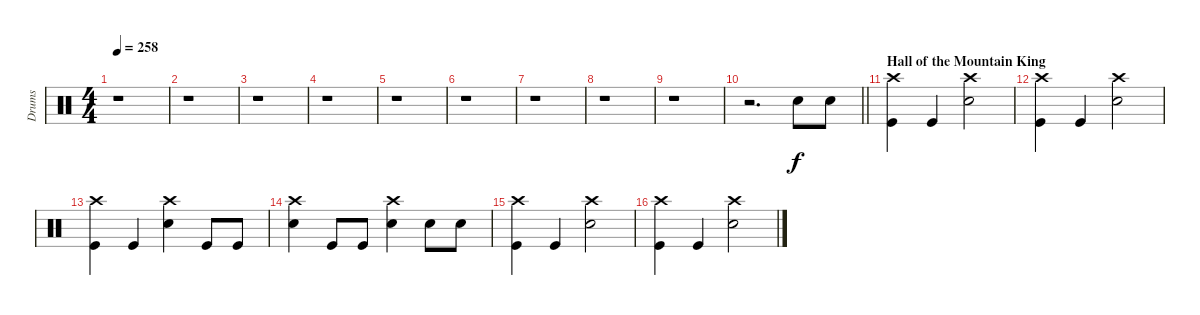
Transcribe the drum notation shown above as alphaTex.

\track ("Drums" "Drums") {instrument percussion}
\staff {score}
\articulation defaults
\ts (4 4)
\tempo 258
\clef neutral
\ks c
r.1{dy f} |
r.1 |
r.1 |
r.1 |
r.1 |
r.1 |
r.1 |
r.1 |
r.1 |
\barLineRight lightlight
r.2{d} "Electric Snare (hit)".8 "Electric Snare (hit)".8 |
\section ("" "Hall of the Mountain King")
("Crash high (hit)" "Kick (hit)").4 "Kick (hit)".4 ("Crash high (hit)" "Electric Snare (hit)").2 |
("Crash high (hit)" "Kick (hit)").4 "Kick (hit)".4 ("Crash high (hit)" "Electric Snare (hit)").2 |
("Crash high (hit)" "Kick (hit)").4 "Kick (hit)".4 ("Crash high (hit)" "Electric Snare (hit)").4 "Kick (hit)".8 "Kick (hit)".8 |
("Crash high (hit)" "Electric Snare (hit)").4 "Kick (hit)".8 "Kick (hit)".8 ("Crash high (hit)" "Electric Snare (hit)").4 "Electric Snare (hit)".8 "Electric Snare (hit)".8 |
("Crash high (hit)" "Kick (hit)").4 "Kick (hit)".4 ("Crash high (hit)" "Electric Snare (hit)").2 |
("Crash high (hit)" "Kick (hit)").4 "Kick (hit)".4 ("Crash high (hit)" "Electric Snare (hit)").2
